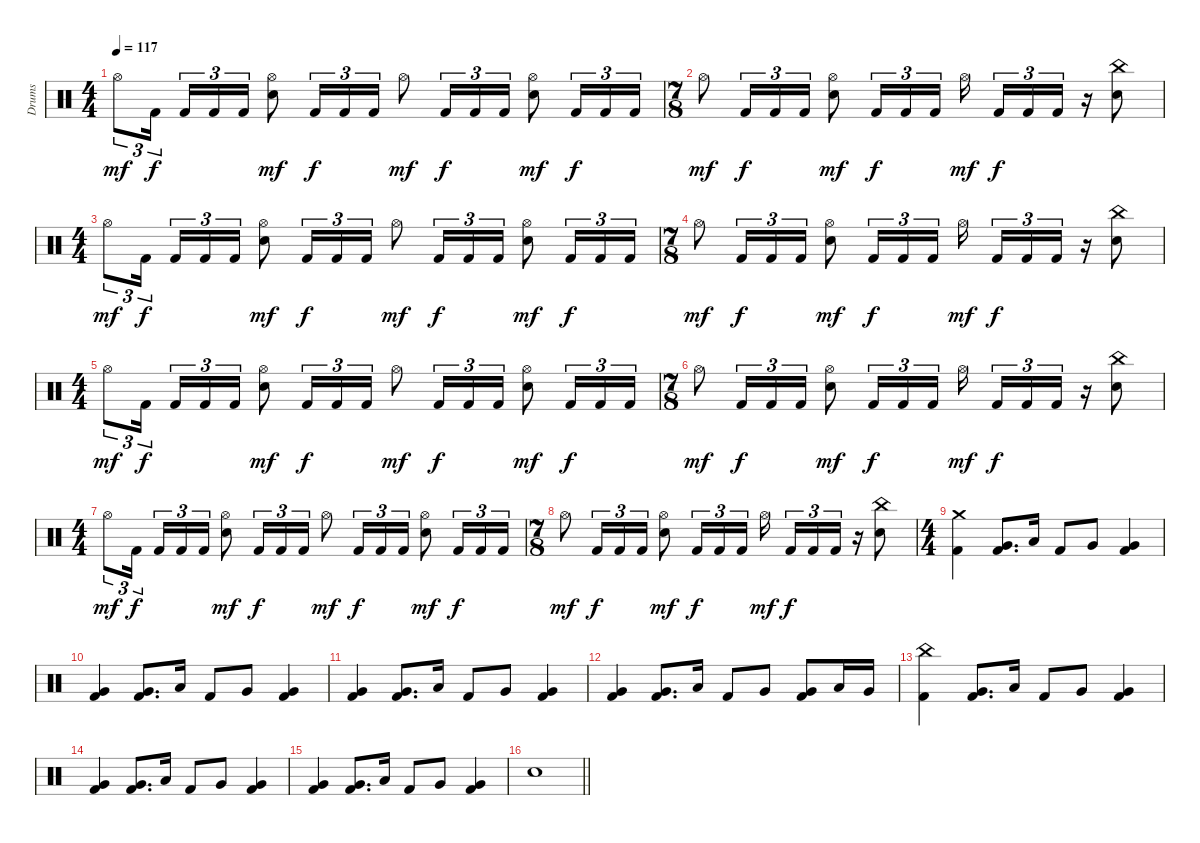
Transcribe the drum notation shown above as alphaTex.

\track ("Drums" "Drums") {instrument percussion}
\staff {score}
\articulation defaults
\ts (4 4)
\tempo 117
\clef neutral
\ks c "Hi-Hat (open)".8{tu (3 2) dy mf} "Kick (hit) 2".16{tu (3 2) dy f beam splitsecondary} "Kick (hit) 2".16{tu (3 2)} "Kick (hit) 2".16{tu (3 2)} "Kick (hit) 2".16{tu (3 2)}
("Hi-Hat (open)" "Electric Snare (hit)").8{dy mf} "Kick (hit) 2".16{tu (3 2) dy f} "Kick (hit) 2".16{tu (3 2)} "Kick (hit) 2".16{tu (3 2)} "Hi-Hat (open)".8{dy mf} "Kick (hit) 2".16{tu (3 2) dy f} "Kick (hit) 2".16{tu (3 2)} "Kick (hit) 2".16{tu (3 2)} ("Hi-Hat (open)" "Electric Snare (hit)").8{dy mf} "Kick (hit) 2".16{tu (3 2) dy f} "Kick (hit) 2".16{tu (3 2)} "Kick (hit) 2".16{tu (3 2)} |
\ts (7 8)
"Hi-Hat (open)".8{dy mf} "Kick (hit) 2".16{tu (3 2) dy f} "Kick (hit) 2".16{tu (3 2)} "Kick (hit) 2".16{tu (3 2)} ("Hi-Hat (open)" "Electric Snare (hit)").8{dy mf} "Kick (hit) 2".16{tu (3 2) dy f} "Kick (hit) 2".16{tu (3 2)} "Kick (hit) 2".16{tu (3 2)} "Hi-Hat (open)".16{dy mf beam splitsecondary} "Kick (hit) 2".16{tu (3 2) dy f} "Kick (hit) 2".16{tu (3 2)} "Kick (hit) 2".16{tu (3 2)} r.16 ("China (hit)" "Electric Snare (hit)").8 |
\ts (4 4)
"Hi-Hat (open)".8{tu (3 2) dy mf} "Kick (hit) 2".16{tu (3 2) dy f beam splitsecondary} "Kick (hit) 2".16{tu (3 2)} "Kick (hit) 2".16{tu (3 2)} "Kick (hit) 2".16{tu (3 2)} ("Hi-Hat (open)" "Electric Snare (hit)").8{dy mf} "Kick (hit) 2".16{tu (3 2) dy f} "Kick (hit) 2".16{tu (3 2)} "Kick (hit) 2".16{tu (3 2)} "Hi-Hat (open)".8{dy mf} "Kick (hit) 2".16{tu (3 2) dy f} "Kick (hit) 2".16{tu (3 2)} "Kick (hit) 2".16{tu (3 2)} ("Hi-Hat (open)" "Electric Snare (hit)").8{dy mf} "Kick (hit) 2".16{tu (3 2) dy f} "Kick (hit) 2".16{tu (3 2)} "Kick (hit) 2".16{tu (3 2)} |
\ts (7 8)
"Hi-Hat (open)".8{dy mf} "Kick (hit) 2".16{tu (3 2) dy f} "Kick (hit) 2".16{tu (3 2)} "Kick (hit) 2".16{tu (3 2)} ("Hi-Hat (open)" "Electric Snare (hit)").8{dy mf} "Kick (hit) 2".16{tu (3 2) dy f} "Kick (hit) 2".16{tu (3 2)} "Kick (hit) 2".16{tu (3 2)} "Hi-Hat (open)".16{dy mf beam splitsecondary} "Kick (hit) 2".16{tu (3 2) dy f} "Kick (hit) 2".16{tu (3 2)} "Kick (hit) 2".16{tu (3 2)} r.16 ("China (hit)" "Electric Snare (hit)").8 |
\ts (4 4)
"Hi-Hat (open)".8{tu (3 2) dy mf} "Kick (hit) 2".16{tu (3 2) dy f beam splitsecondary} "Kick (hit) 2".16{tu (3 2)} "Kick (hit) 2".16{tu (3 2)} "Kick (hit) 2".16{tu (3 2)} ("Hi-Hat (open)" "Electric Snare (hit)").8{dy mf} "Kick (hit) 2".16{tu (3 2) dy f} "Kick (hit) 2".16{tu (3 2)} "Kick (hit) 2".16{tu (3 2)} "Hi-Hat (open)".8{dy mf} "Kick (hit) 2".16{tu (3 2) dy f} "Kick (hit) 2".16{tu (3 2)} "Kick (hit) 2".16{tu (3 2)} ("Hi-Hat (open)" "Electric Snare (hit)").8{dy mf} "Kick (hit) 2".16{tu (3 2) dy f} "Kick (hit) 2".16{tu (3 2)} "Kick (hit) 2".16{tu (3 2)} |
\ts (7 8)
"Hi-Hat (open)".8{dy mf} "Kick (hit) 2".16{tu (3 2) dy f} "Kick (hit) 2".16{tu (3 2)} "Kick (hit) 2".16{tu (3 2)} ("Hi-Hat (open)" "Electric Snare (hit)").8{dy mf} "Kick (hit) 2".16{tu (3 2) dy f} "Kick (hit) 2".16{tu (3 2)} "Kick (hit) 2".16{tu (3 2)} "Hi-Hat (open)".16{dy mf beam splitsecondary} "Kick (hit) 2".16{tu (3 2) dy f} "Kick (hit) 2".16{tu (3 2)} "Kick (hit) 2".16{tu (3 2)} r.16 ("China (hit)" "Electric Snare (hit)").8 |
\ts (4 4)
"Hi-Hat (open)".8{tu (3 2) dy mf} "Kick (hit) 2".16{tu (3 2) dy f beam splitsecondary} "Kick (hit) 2".16{tu (3 2)} "Kick (hit) 2".16{tu (3 2)} "Kick (hit) 2".16{tu (3 2)} ("Hi-Hat (open)" "Electric Snare (hit)").8{dy mf} "Kick (hit) 2".16{tu (3 2) dy f} "Kick (hit) 2".16{tu (3 2)} "Kick (hit) 2".16{tu (3 2)} "Hi-Hat (open)".8{dy mf} "Kick (hit) 2".16{tu (3 2) dy f} "Kick (hit) 2".16{tu (3 2)} "Kick (hit) 2".16{tu (3 2)} ("Hi-Hat (open)" "Electric Snare (hit)").8{dy mf} "Kick (hit) 2".16{tu (3 2) dy f} "Kick (hit) 2".16{tu (3 2)} "Kick (hit) 2".16{tu (3 2)} |
\ts (7 8)
"Hi-Hat (open)".8{dy mf} "Kick (hit) 2".16{tu (3 2) dy f} "Kick (hit) 2".16{tu (3 2)} "Kick (hit) 2".16{tu (3 2)} ("Hi-Hat (open)" "Electric Snare (hit)").8{dy mf} "Kick (hit) 2".16{tu (3 2) dy f} "Kick (hit) 2".16{tu (3 2)} "Kick (hit) 2".16{tu (3 2)} "Hi-Hat (open)".16{dy mf beam splitsecondary} "Kick (hit) 2".16{tu (3 2) dy f} "Kick (hit) 2".16{tu (3 2)} "Kick (hit) 2".16{tu (3 2)} r.16 ("China (hit)" "Electric Snare (hit)").8 |
\ts (4 4)
("Kick (hit) 2" "Crash medium (hit)").4 ("Kick (hit) 2" "Very Low Tom (hit)").8{d} "Low Tom (hit)".16 "Kick (hit) 2".8 "Very Low Tom (hit)".8 ("Kick (hit) 2" "Very Low Tom (hit)").4 |
("Kick (hit) 2" "Very Low Tom (hit)").4 ("Kick (hit) 2" "Very Low Tom (hit)").8{d} "Low Tom (hit)".16 "Kick (hit) 2".8 "Very Low Tom (hit)".8 ("Kick (hit) 2" "Very Low Tom (hit)").4 |
("Kick (hit) 2" "Very Low Tom (hit)").4 ("Kick (hit) 2" "Very Low Tom (hit)").8{d} "Low Tom (hit)".16 "Kick (hit) 2".8 "Very Low Tom (hit)".8 ("Kick (hit) 2" "Very Low Tom (hit)").4 |
("Kick (hit) 2" "Very Low Tom (hit)").4 ("Kick (hit) 2" "Very Low Tom (hit)").8{d} "Low Tom (hit)".16 "Kick (hit) 2".8 "Very Low Tom (hit)".8 ("Kick (hit) 2" "Very Low Tom (hit)").8 "Low Tom (hit)".16 "Very Low Tom (hit)".16 |
("Kick (hit) 2" "China (hit)").4 ("Kick (hit) 2" "Very Low Tom (hit)").8{d} "Low Tom (hit)".16 "Kick (hit) 2".8 "Very Low Tom (hit)".8 ("Kick (hit) 2" "Very Low Tom (hit)").4 |
("Kick (hit) 2" "Very Low Tom (hit)").4 ("Kick (hit) 2" "Very Low Tom (hit)").8{d} "Low Tom (hit)".16 "Kick (hit) 2".8 "Very Low Tom (hit)".8 ("Kick (hit) 2" "Very Low Tom (hit)").4 |
("Kick (hit) 2" "Very Low Tom (hit)").4 ("Kick (hit) 2" "Very Low Tom (hit)").8{d} "Low Tom (hit)".16 "Kick (hit) 2".8 "Very Low Tom (hit)".8 ("Kick (hit) 2" "Very Low Tom (hit)").4 |
\barLineRight lightlight "Electric Snare (hit)".1
